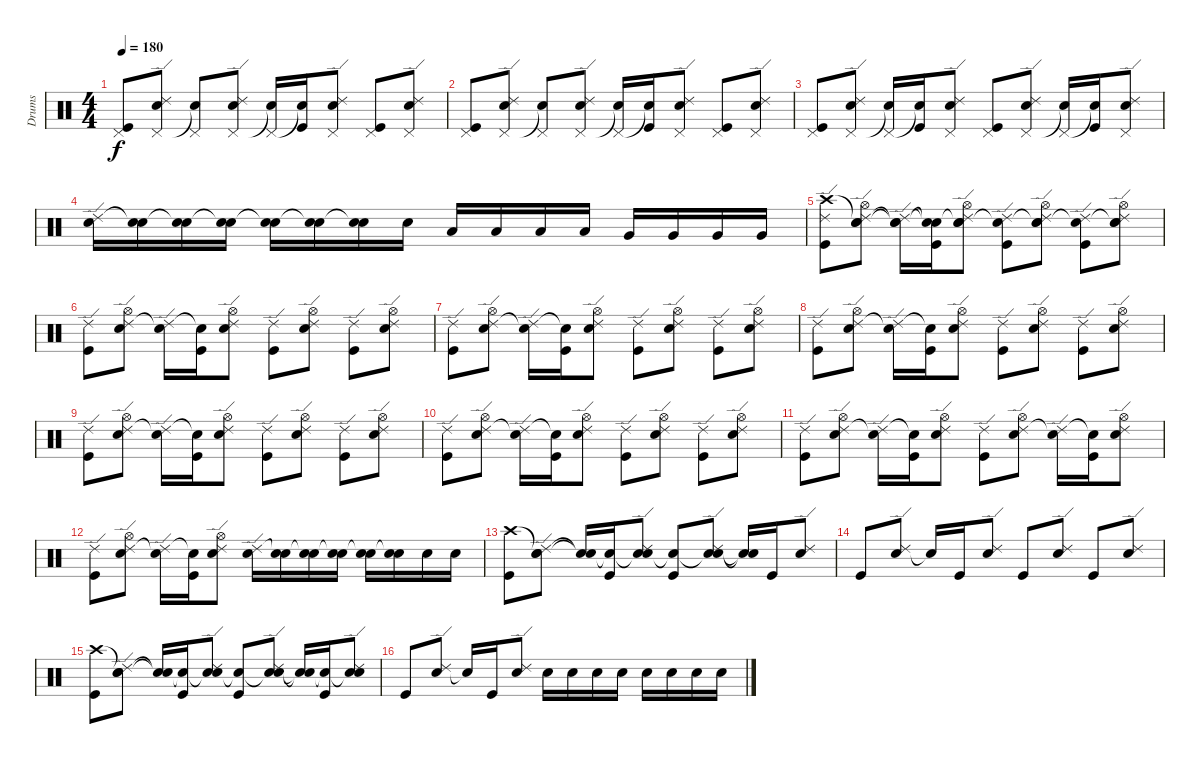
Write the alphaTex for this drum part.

\track ("Drums" "Drums") {instrument percussion}
\staff {score}
\articulation defaults
\ts (4 4)
\tempo 180
\clef neutral
\ks c
("Pedal Hi-Hat (hit)" "Kick (hit)").8{dy f} ("Ride (edge) 2" "Pedal Hi-Hat (hit)" "Electric Snare (hit)").8 ("Pedal Hi-Hat (hit)" "Snare (hit)"{t}).8 ("Ride (edge) 2" "Pedal Hi-Hat (hit)" "Electric Snare (hit)").8 ("Pedal Hi-Hat (hit)" "Snare (hit)"{t}).16 ("Snare (hit)"{t} "Kick (hit)").16 ("Ride (edge) 2" "Pedal Hi-Hat (hit)" "Electric Snare (hit)").8 ("Pedal Hi-Hat (hit)" "Kick (hit)").8 ("Ride (edge) 2" "Pedal Hi-Hat (hit)" "Electric Snare (hit)").8 |
("Pedal Hi-Hat (hit)" "Kick (hit)").8 ("Ride (edge) 2" "Pedal Hi-Hat (hit)" "Electric Snare (hit)").8 ("Pedal Hi-Hat (hit)" "Snare (hit)"{t}).8 ("Ride (edge) 2" "Pedal Hi-Hat (hit)" "Electric Snare (hit)").8 ("Pedal Hi-Hat (hit)" "Snare (hit)"{t}).16 ("Snare (hit)"{t} "Kick (hit)").16 ("Ride (edge) 2" "Pedal Hi-Hat (hit)" "Electric Snare (hit)").8 ("Pedal Hi-Hat (hit)" "Kick (hit)").8 ("Ride (edge) 2" "Pedal Hi-Hat (hit)" "Electric Snare (hit)").8 |
("Pedal Hi-Hat (hit)" "Kick (hit)").8 ("Ride (edge) 2" "Pedal Hi-Hat (hit)" "Electric Snare (hit)").8 ("Pedal Hi-Hat (hit)" "Snare (hit)"{t}).16 ("Snare (hit)"{t} "Kick (hit)").16 ("Ride (edge) 2" "Pedal Hi-Hat (hit)" "Electric Snare (hit)").8 ("Pedal Hi-Hat (hit)" "Kick (hit)").8 ("Ride (edge) 2" "Pedal Hi-Hat (hit)" "Electric Snare (hit)").8 ("Pedal Hi-Hat (hit)" "Snare (hit)"{t}).16 ("Snare (hit)"{t} "Kick (hit)").16 ("Ride (edge) 2" "Pedal Hi-Hat (hit)" "Electric Snare (hit)").8 |
("Ride (edge) 2" "Electric Snare (hit)").16 ("Snare (hit)"{t} "Electric Snare (hit)").16 ("Snare (hit)"{t} "Electric Snare (hit)").16 ("Snare (hit)"{t} "Electric Snare (hit)").16 ("Snare (hit)"{t} "Electric Snare (hit)").16 ("Snare (hit)"{t} "Electric Snare (hit)").16 ("Snare (hit)"{t} "Electric Snare (hit)").16 "Electric Snare (hit)".16 "Low Tom (hit)".16 "Low Tom (hit)".16 "Low Tom (hit)".16 "Low Tom (hit)".16 "Very Low Tom (hit)".16 "Very Low Tom (hit)".16 "Very Low Tom (hit)".16 "Very Low Tom (hit)".16 |
("Crash high (hit)" "Ride (edge) 2" "Kick (hit)").8 ("Snare (hit)"{t} "Hi-Hat (open)" "Ride (edge) 2" "Electric Snare (hit)").8 ("Snare (hit)"{t} "Ride (edge) 2" "Snare (hit)"{t}).16 ("Snare (hit)"{t} "Snare (hit)"{t} "Kick (hit)").16 ("Snare (hit)"{t} "Hi-Hat (open)" "Ride (edge) 2" "Electric Snare (hit)").8 ("Snare (hit)"{t} "Ride (edge) 2" "Kick (hit)").8 ("Snare (hit)"{t} "Hi-Hat (open)" "Ride (edge) 2" "Electric Snare (hit)").8 ("Snare (hit)"{t} "Ride (edge) 2" "Kick (hit)").8 ("Snare (hit)"{t} "Hi-Hat (open)" "Ride (edge) 2" "Electric Snare (hit)").8 |
("Ride (edge) 2" "Kick (hit)").8 ("Hi-Hat (open)" "Ride (edge) 2" "Electric Snare (hit)").8 ("Ride (edge) 2" "Snare (hit)"{t}).16 ("Snare (hit)"{t} "Kick (hit)").16 ("Hi-Hat (open)" "Ride (edge) 2" "Electric Snare (hit)").8 ("Ride (edge) 2" "Kick (hit)").8 ("Hi-Hat (open)" "Ride (edge) 2" "Electric Snare (hit)").8 ("Ride (edge) 2" "Kick (hit)").8 ("Hi-Hat (open)" "Ride (edge) 2" "Electric Snare (hit)").8 |
("Ride (edge) 2" "Kick (hit)").8 ("Hi-Hat (open)" "Ride (edge) 2" "Electric Snare (hit)").8 ("Ride (edge) 2" "Snare (hit)"{t}).16 ("Snare (hit)"{t} "Kick (hit)").16 ("Hi-Hat (open)" "Ride (edge) 2" "Electric Snare (hit)").8 ("Ride (edge) 2" "Kick (hit)").8 ("Hi-Hat (open)" "Ride (edge) 2" "Electric Snare (hit)").8 ("Ride (edge) 2" "Kick (hit)").8 ("Hi-Hat (open)" "Ride (edge) 2" "Electric Snare (hit)").8 |
("Ride (edge) 2" "Kick (hit)").8 ("Hi-Hat (open)" "Ride (edge) 2" "Electric Snare (hit)").8 ("Ride (edge) 2" "Snare (hit)"{t}).16 ("Snare (hit)"{t} "Kick (hit)").16 ("Hi-Hat (open)" "Ride (edge) 2" "Electric Snare (hit)").8 ("Ride (edge) 2" "Kick (hit)").8 ("Hi-Hat (open)" "Ride (edge) 2" "Electric Snare (hit)").8 ("Ride (edge) 2" "Kick (hit)").8 ("Hi-Hat (open)" "Ride (edge) 2" "Electric Snare (hit)").8 |
("Ride (edge) 2" "Kick (hit)").8 ("Hi-Hat (open)" "Ride (edge) 2" "Electric Snare (hit)").8 ("Ride (edge) 2" "Snare (hit)"{t}).16 ("Snare (hit)"{t} "Kick (hit)").16 ("Hi-Hat (open)" "Ride (edge) 2" "Electric Snare (hit)").8 ("Ride (edge) 2" "Kick (hit)").8 ("Hi-Hat (open)" "Ride (edge) 2" "Electric Snare (hit)").8 ("Ride (edge) 2" "Kick (hit)").8 ("Hi-Hat (open)" "Ride (edge) 2" "Electric Snare (hit)").8 |
("Ride (edge) 2" "Kick (hit)").8 ("Hi-Hat (open)" "Ride (edge) 2" "Electric Snare (hit)").8 ("Ride (edge) 2" "Snare (hit)"{t}).16 ("Snare (hit)"{t} "Kick (hit)").16 ("Hi-Hat (open)" "Ride (edge) 2" "Electric Snare (hit)").8 ("Ride (edge) 2" "Kick (hit)").8 ("Hi-Hat (open)" "Ride (edge) 2" "Electric Snare (hit)").8 ("Ride (edge) 2" "Kick (hit)").8 ("Hi-Hat (open)" "Ride (edge) 2" "Electric Snare (hit)").8 |
("Ride (edge) 2" "Kick (hit)").8 ("Hi-Hat (open)" "Ride (edge) 2" "Electric Snare (hit)").8 ("Ride (edge) 2" "Snare (hit)"{t}).16 ("Snare (hit)"{t} "Kick (hit)").16 ("Hi-Hat (open)" "Ride (edge) 2" "Electric Snare (hit)").8 ("Ride (edge) 2" "Kick (hit)").8 ("Hi-Hat (open)" "Ride (edge) 2" "Electric Snare (hit)").8 ("Ride (edge) 2" "Snare (hit)"{t}).16 ("Snare (hit)"{t} "Kick (hit)").16 ("Hi-Hat (open)" "Ride (edge) 2" "Electric Snare (hit)").8 |
("Ride (edge) 2" "Kick (hit)").8 ("Hi-Hat (open)" "Ride (edge) 2" "Electric Snare (hit)").8 ("Ride (edge) 2" "Snare (hit)"{t}).16 ("Snare (hit)"{t} "Kick (hit)").16 ("Hi-Hat (open)" "Ride (edge) 2" "Electric Snare (hit)").8 ("Ride (edge) 2" "Electric Snare (hit)").16 ("Snare (hit)"{t} "Electric Snare (hit)").16 ("Snare (hit)"{t} "Electric Snare (hit)").16 ("Snare (hit)"{t} "Electric Snare (hit)").16 ("Snare (hit)"{t} "Electric Snare (hit)").16 ("Snare (hit)"{t} "Electric Snare (hit)").16 "Electric Snare (hit)".16 "Electric Snare (hit)".16 |
("Crash high (hit)" "Kick (hit)").8 ("Snare (hit)"{t} "Ride (edge) 2" "Electric Snare (hit)").8 ("Snare (hit)"{t} "Snare (hit)"{t}).16 ("Snare (hit)"{t} "Kick (hit)").16 ("Snare (hit)"{t} "Ride (edge) 2" "Electric Snare (hit)").8 ("Snare (hit)"{t} "Kick (hit)").8 ("Snare (hit)"{t} "Ride (edge) 2" "Electric Snare (hit)").8 ("Snare (hit)"{t} "Snare (hit)"{t}).16 "Kick (hit)".16 ("Ride (edge) 2" "Electric Snare (hit)").8 |
"Kick (hit)".8 ("Ride (edge) 2" "Electric Snare (hit)").8 "Snare (hit)"{t}.16 "Kick (hit)".16 ("Ride (edge) 2" "Electric Snare (hit)").8 "Kick (hit)".8 ("Ride (edge) 2" "Electric Snare (hit)").8 "Kick (hit)".8 ("Ride (edge) 2" "Electric Snare (hit)").8 |
("Crash high (hit)" "Kick (hit)").8 ("Snare (hit)"{t} "Ride (edge) 2" "Electric Snare (hit)").8 ("Snare (hit)"{t} "Snare (hit)"{t}).16 ("Snare (hit)"{t} "Kick (hit)").16 ("Snare (hit)"{t} "Ride (edge) 2" "Electric Snare (hit)").8 ("Snare (hit)"{t} "Kick (hit)").8 ("Snare (hit)"{t} "Ride (edge) 2" "Electric Snare (hit)").8 ("Snare (hit)"{t} "Snare (hit)"{t}).16 ("Snare (hit)"{t} "Kick (hit)").16 ("Snare (hit)"{t} "Ride (edge) 2" "Electric Snare (hit)").8 |
"Kick (hit)".8 ("Ride (edge) 2" "Electric Snare (hit)").8 "Snare (hit)"{t}.16 "Kick (hit)".16 ("Ride (edge) 2" "Electric Snare (hit)").8 "Electric Snare (hit)".16 "Electric Snare (hit)".16 "Electric Snare (hit)".16 "Electric Snare (hit)".16 "Electric Snare (hit)".16 "Electric Snare (hit)".16 "Electric Snare (hit)".16 "Electric Snare (hit)".16
